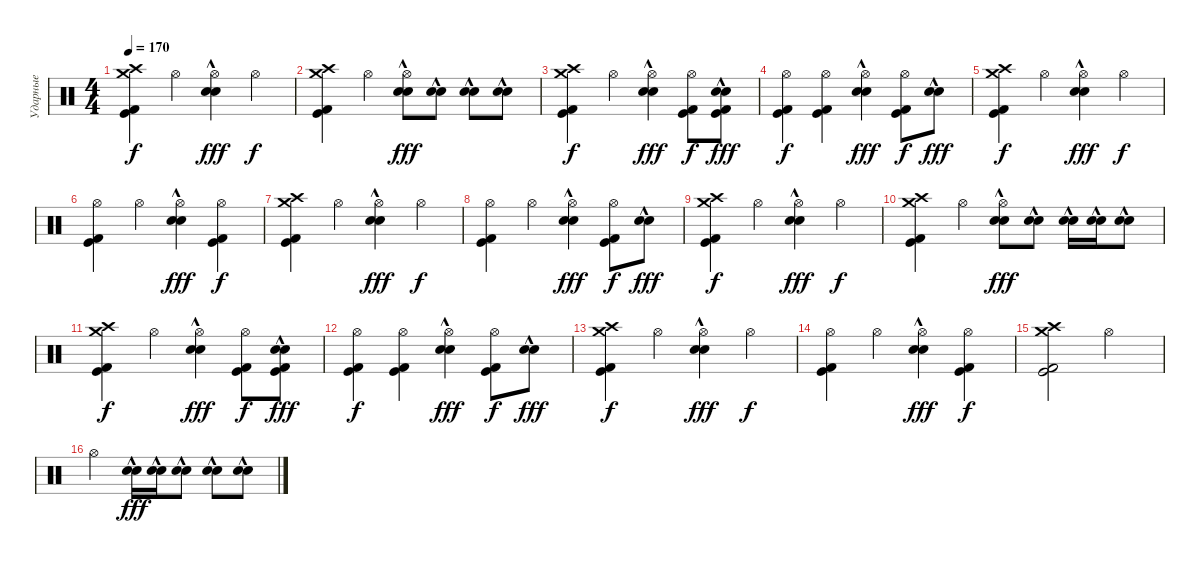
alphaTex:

\track ("Ударные" "Ударные") {instrument percussion}
\staff {score}
\articulation defaults
\ts (4 4)
\tempo 170
\clef neutral
\ks c
("Crash high (hit)" "Kick (hit)" "Kick (hit) 2" "Crash medium (hit)").4{dy f} "Hi-Hat (open)".4 ("Hi-Hat (open)" "Snare (hit) 2"{hac} "Electric Snare (hit)"{hac}).4{dy fff} "Hi-Hat (open)".4{dy f} |
("Crash high (hit)" "Kick (hit)" "Kick (hit) 2" "Crash medium (hit)").4 "Hi-Hat (open)".4 ("Hi-Hat (open)" "Snare (hit) 2"{hac} "Electric Snare (hit)"{hac}).8{dy fff} ("Snare (hit) 2"{hac} "Electric Snare (hit)"{hac}).8 ("Snare (hit) 2"{hac} "Electric Snare (hit)"{hac}).8 ("Snare (hit) 2"{hac} "Electric Snare (hit)"{hac}).8 |
("Crash high (hit)" "Kick (hit)" "Kick (hit) 2" "Crash medium (hit)").4{dy f} "Hi-Hat (open)".4 ("Hi-Hat (open)" "Snare (hit) 2"{hac} "Electric Snare (hit)"{hac}).4{dy fff} ("Hi-Hat (open)" "Kick (hit)" "Kick (hit) 2").8{dy f} ("Kick (hit)" "Kick (hit) 2" "Snare (hit) 2"{hac} "Electric Snare (hit)"{hac}).8{dy fff} |
("Hi-Hat (open)" "Kick (hit)" "Kick (hit) 2").4{dy f} ("Hi-Hat (open)" "Kick (hit)" "Kick (hit) 2").4 ("Hi-Hat (open)" "Snare (hit) 2"{hac} "Electric Snare (hit)"{hac}).4{dy fff} ("Hi-Hat (open)" "Kick (hit)" "Kick (hit) 2").8{dy f} ("Snare (hit) 2"{hac} "Electric Snare (hit)"{hac}).8{dy fff} |
("Crash high (hit)" "Kick (hit)" "Kick (hit) 2" "Crash medium (hit)").4{dy f} "Hi-Hat (open)".4 ("Hi-Hat (open)" "Snare (hit) 2"{hac} "Electric Snare (hit)"{hac}).4{dy fff} "Hi-Hat (open)".4{dy f} |
("Hi-Hat (open)" "Kick (hit)" "Kick (hit) 2").4 "Hi-Hat (open)".4 ("Hi-Hat (open)" "Snare (hit) 2"{hac} "Electric Snare (hit)"{hac}).4{dy fff} ("Hi-Hat (open)" "Kick (hit)" "Kick (hit) 2").4{dy f} |
("Crash high (hit)" "Kick (hit)" "Kick (hit) 2" "Crash medium (hit)").4 "Hi-Hat (open)".4 ("Hi-Hat (open)" "Snare (hit) 2"{hac} "Electric Snare (hit)"{hac}).4{dy fff} "Hi-Hat (open)".4{dy f} |
("Hi-Hat (open)" "Kick (hit)" "Kick (hit) 2").4 "Hi-Hat (open)".4 ("Hi-Hat (open)" "Snare (hit) 2"{hac} "Electric Snare (hit)"{hac}).4{dy fff} ("Hi-Hat (open)" "Kick (hit)" "Kick (hit) 2").8{dy f} ("Snare (hit) 2"{hac} "Electric Snare (hit)"{hac}).8{dy fff} |
("Crash high (hit)" "Kick (hit)" "Kick (hit) 2" "Crash medium (hit)").4{dy f} "Hi-Hat (open)".4 ("Hi-Hat (open)" "Snare (hit) 2"{hac} "Electric Snare (hit)"{hac}).4{dy fff} "Hi-Hat (open)".4{dy f} |
("Crash high (hit)" "Kick (hit)" "Kick (hit) 2" "Crash medium (hit)").4 "Hi-Hat (open)".4 ("Hi-Hat (open)" "Snare (hit) 2"{hac} "Electric Snare (hit)"{hac}).8{dy fff} ("Snare (hit) 2"{hac} "Electric Snare (hit)"{hac}).8 ("Snare (hit) 2"{hac} "Electric Snare (hit)"{hac}).16 ("Snare (hit) 2"{hac} "Electric Snare (hit)"{hac}).16 ("Snare (hit) 2"{hac} "Electric Snare (hit)"{hac}).8 |
("Crash high (hit)" "Kick (hit)" "Kick (hit) 2" "Crash medium (hit)").4{dy f} "Hi-Hat (open)".4 ("Hi-Hat (open)" "Snare (hit) 2"{hac} "Electric Snare (hit)"{hac}).4{dy fff} ("Hi-Hat (open)" "Kick (hit)" "Kick (hit) 2").8{dy f} ("Kick (hit)" "Kick (hit) 2" "Snare (hit) 2"{hac} "Electric Snare (hit)"{hac}).8{dy fff} |
("Hi-Hat (open)" "Kick (hit)" "Kick (hit) 2").4{dy f} ("Hi-Hat (open)" "Kick (hit)" "Kick (hit) 2").4 ("Hi-Hat (open)" "Snare (hit) 2"{hac} "Electric Snare (hit)"{hac}).4{dy fff} ("Hi-Hat (open)" "Kick (hit)" "Kick (hit) 2").8{dy f} ("Snare (hit) 2"{hac} "Electric Snare (hit)"{hac}).8{dy fff} |
("Crash high (hit)" "Kick (hit)" "Kick (hit) 2" "Crash medium (hit)").4{dy f} "Hi-Hat (open)".4 ("Hi-Hat (open)" "Snare (hit) 2"{hac} "Electric Snare (hit)"{hac}).4{dy fff} "Hi-Hat (open)".4{dy f} |
("Hi-Hat (open)" "Kick (hit)" "Kick (hit) 2").4 "Hi-Hat (open)".4 ("Hi-Hat (open)" "Snare (hit) 2"{hac} "Electric Snare (hit)"{hac}).4{dy fff} ("Hi-Hat (open)" "Kick (hit)" "Kick (hit) 2").4{dy f} |
("Crash high (hit)" "Kick (hit)" "Kick (hit) 2" "Crash medium (hit)").2 "Hi-Hat (open)".2 |
"Hi-Hat (open)".2 ("Snare (hit) 2"{hac} "Electric Snare (hit)"{hac}).16{dy fff} ("Snare (hit) 2"{hac} "Electric Snare (hit)"{hac}).16 ("Snare (hit) 2"{hac} "Electric Snare (hit)"{hac}).8 ("Snare (hit) 2"{hac} "Electric Snare (hit)"{hac}).8 ("Snare (hit) 2"{hac} "Electric Snare (hit)"{hac}).8
